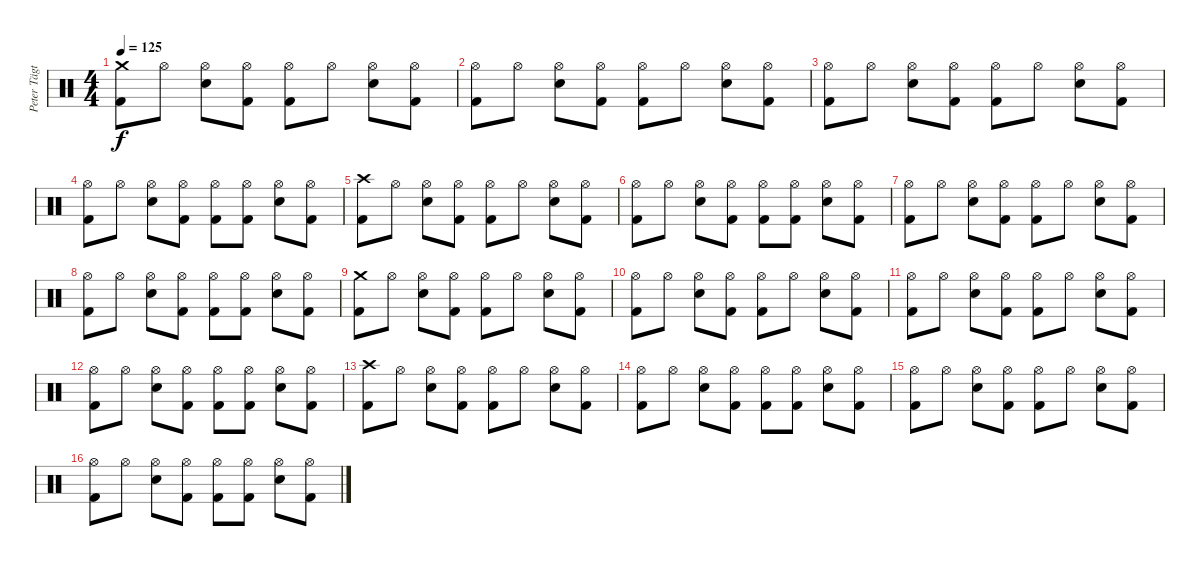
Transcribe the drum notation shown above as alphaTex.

\track ("Peter Tägtgren" "Peter Tägt") {instrument percussion}
\staff {score}
\articulation defaults
\ts (4 4)
\tempo 125
\clef neutral
\ks c
("Crash medium (hit)" "Kick (hit) 2").8{dy f} "Hi-Hat (open)".8 ("Hi-Hat (open)" "Electric Snare (hit)").8 ("Hi-Hat (open)" "Kick (hit) 2").8 ("Hi-Hat (open)" "Kick (hit) 2").8 "Hi-Hat (open)".8 ("Hi-Hat (open)" "Electric Snare (hit)").8 ("Hi-Hat (open)" "Kick (hit) 2").8 |
("Hi-Hat (open)" "Kick (hit) 2").8 "Hi-Hat (open)".8 ("Hi-Hat (open)" "Electric Snare (hit)").8 ("Hi-Hat (open)" "Kick (hit) 2").8 ("Hi-Hat (open)" "Kick (hit) 2").8 "Hi-Hat (open)".8 ("Hi-Hat (open)" "Electric Snare (hit)").8 ("Hi-Hat (open)" "Kick (hit) 2").8 |
("Hi-Hat (open)" "Kick (hit) 2").8 "Hi-Hat (open)".8 ("Hi-Hat (open)" "Electric Snare (hit)").8 ("Hi-Hat (open)" "Kick (hit) 2").8 ("Hi-Hat (open)" "Kick (hit) 2").8 "Hi-Hat (open)".8 ("Hi-Hat (open)" "Electric Snare (hit)").8 ("Hi-Hat (open)" "Kick (hit) 2").8 |
("Hi-Hat (open)" "Kick (hit) 2").8 "Hi-Hat (open)".8 ("Hi-Hat (open)" "Electric Snare (hit)").8 ("Hi-Hat (open)" "Kick (hit) 2").8 ("Hi-Hat (open)" "Kick (hit) 2").8 ("Hi-Hat (open)" "Kick (hit) 2").8 ("Hi-Hat (open)" "Electric Snare (hit)").8 ("Hi-Hat (open)" "Kick (hit) 2").8 |
("Crash high (hit)" "Kick (hit) 2").8 "Hi-Hat (open)".8 ("Hi-Hat (open)" "Electric Snare (hit)").8 ("Hi-Hat (open)" "Kick (hit) 2").8 ("Hi-Hat (open)" "Kick (hit) 2").8 "Hi-Hat (open)".8 ("Hi-Hat (open)" "Electric Snare (hit)").8 ("Hi-Hat (open)" "Kick (hit) 2").8 |
("Hi-Hat (open)" "Kick (hit) 2").8 "Hi-Hat (open)".8 ("Hi-Hat (open)" "Electric Snare (hit)").8 ("Hi-Hat (open)" "Kick (hit) 2").8 ("Hi-Hat (open)" "Kick (hit) 2").8 ("Hi-Hat (open)" "Kick (hit) 2").8 ("Hi-Hat (open)" "Electric Snare (hit)").8 ("Hi-Hat (open)" "Kick (hit) 2").8 |
("Hi-Hat (open)" "Kick (hit) 2").8 "Hi-Hat (open)".8 ("Hi-Hat (open)" "Electric Snare (hit)").8 ("Hi-Hat (open)" "Kick (hit) 2").8 ("Hi-Hat (open)" "Kick (hit) 2").8 "Hi-Hat (open)".8 ("Hi-Hat (open)" "Electric Snare (hit)").8 ("Hi-Hat (open)" "Kick (hit) 2").8 |
("Hi-Hat (open)" "Kick (hit) 2").8 "Hi-Hat (open)".8 ("Hi-Hat (open)" "Electric Snare (hit)").8 ("Hi-Hat (open)" "Kick (hit) 2").8 ("Hi-Hat (open)" "Kick (hit) 2").8 ("Hi-Hat (open)" "Kick (hit) 2").8 ("Hi-Hat (open)" "Electric Snare (hit)").8 ("Hi-Hat (open)" "Kick (hit) 2").8 |
("Crash medium (hit)" "Kick (hit) 2").8 "Hi-Hat (open)".8 ("Hi-Hat (open)" "Electric Snare (hit)").8 ("Hi-Hat (open)" "Kick (hit) 2").8 ("Hi-Hat (open)" "Kick (hit) 2").8 "Hi-Hat (open)".8 ("Hi-Hat (open)" "Electric Snare (hit)").8 ("Hi-Hat (open)" "Kick (hit) 2").8 |
("Hi-Hat (open)" "Kick (hit) 2").8 "Hi-Hat (open)".8 ("Hi-Hat (open)" "Electric Snare (hit)").8 ("Hi-Hat (open)" "Kick (hit) 2").8 ("Hi-Hat (open)" "Kick (hit) 2").8 "Hi-Hat (open)".8 ("Hi-Hat (open)" "Electric Snare (hit)").8 ("Hi-Hat (open)" "Kick (hit) 2").8 |
("Hi-Hat (open)" "Kick (hit) 2").8 "Hi-Hat (open)".8 ("Hi-Hat (open)" "Electric Snare (hit)").8 ("Hi-Hat (open)" "Kick (hit) 2").8 ("Hi-Hat (open)" "Kick (hit) 2").8 "Hi-Hat (open)".8 ("Hi-Hat (open)" "Electric Snare (hit)").8 ("Hi-Hat (open)" "Kick (hit) 2").8 |
("Hi-Hat (open)" "Kick (hit) 2").8 "Hi-Hat (open)".8 ("Hi-Hat (open)" "Electric Snare (hit)").8 ("Hi-Hat (open)" "Kick (hit) 2").8 ("Hi-Hat (open)" "Kick (hit) 2").8 ("Hi-Hat (open)" "Kick (hit) 2").8 ("Hi-Hat (open)" "Electric Snare (hit)").8 ("Hi-Hat (open)" "Kick (hit) 2").8 |
("Crash high (hit)" "Kick (hit) 2").8 "Hi-Hat (open)".8 ("Hi-Hat (open)" "Electric Snare (hit)").8 ("Hi-Hat (open)" "Kick (hit) 2").8 ("Hi-Hat (open)" "Kick (hit) 2").8 "Hi-Hat (open)".8 ("Hi-Hat (open)" "Electric Snare (hit)").8 ("Hi-Hat (open)" "Kick (hit) 2").8 |
("Hi-Hat (open)" "Kick (hit) 2").8 "Hi-Hat (open)".8 ("Hi-Hat (open)" "Electric Snare (hit)").8 ("Hi-Hat (open)" "Kick (hit) 2").8 ("Hi-Hat (open)" "Kick (hit) 2").8 ("Hi-Hat (open)" "Kick (hit) 2").8 ("Hi-Hat (open)" "Electric Snare (hit)").8 ("Hi-Hat (open)" "Kick (hit) 2").8 |
("Hi-Hat (open)" "Kick (hit) 2").8 "Hi-Hat (open)".8 ("Hi-Hat (open)" "Electric Snare (hit)").8 ("Hi-Hat (open)" "Kick (hit) 2").8 ("Hi-Hat (open)" "Kick (hit) 2").8 "Hi-Hat (open)".8 ("Hi-Hat (open)" "Electric Snare (hit)").8 ("Hi-Hat (open)" "Kick (hit) 2").8 |
("Hi-Hat (open)" "Kick (hit) 2").8 "Hi-Hat (open)".8 ("Hi-Hat (open)" "Electric Snare (hit)").8 ("Hi-Hat (open)" "Kick (hit) 2").8 ("Hi-Hat (open)" "Kick (hit) 2").8 ("Hi-Hat (open)" "Kick (hit) 2").8 ("Hi-Hat (open)" "Electric Snare (hit)").8 ("Hi-Hat (open)" "Kick (hit) 2").8
